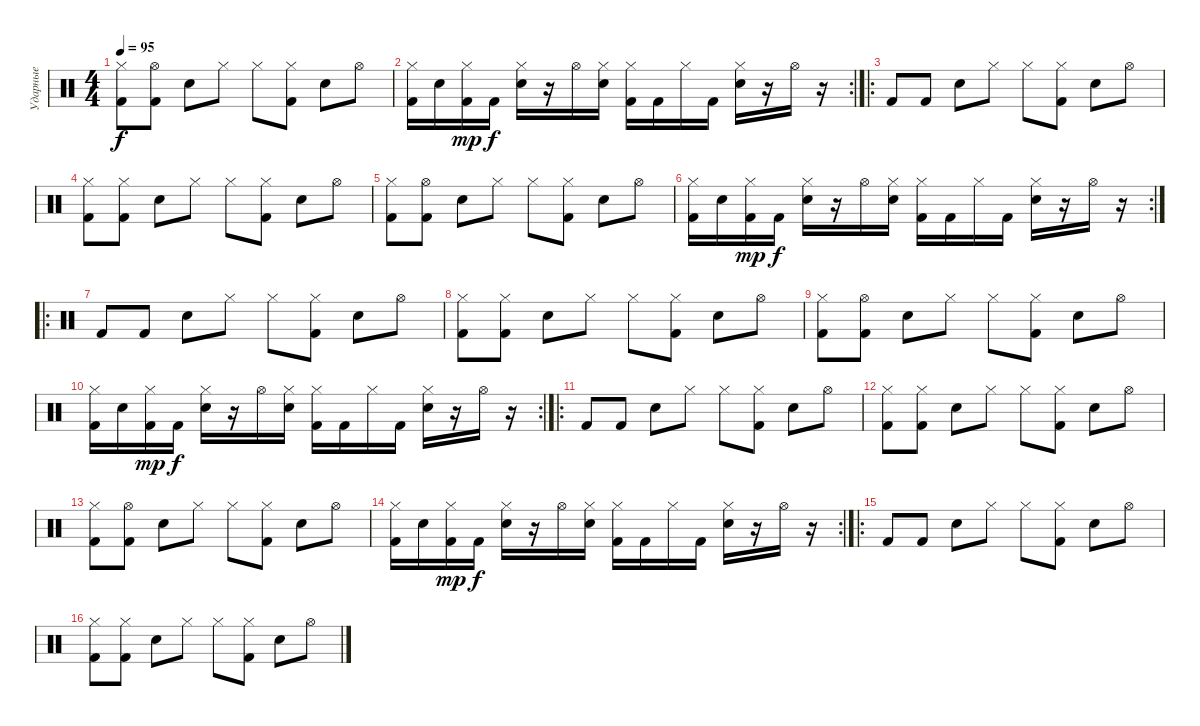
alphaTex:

\track ("Ударные" "Ударные") {instrument percussion}
\staff {score}
\articulation defaults
\ts (4 4)
\tempo 95
\clef neutral
\ks c
("Hi-Hat (closed)" "Kick (hit) 2").8{dy f} ("Hi-Hat (open)" "Kick (hit) 2").8 "Snare (hit) 2".8 "Hi-Hat (closed)".8 "Hi-Hat (closed)".8 ("Hi-Hat (closed)" "Kick (hit) 2").8 "Snare (hit) 2".8 "Hi-Hat (open)".8 |
\rc 2
("Hi-Hat (closed)" "Kick (hit) 2").16 "Snare (hit) 2".16 ("Hi-Hat (closed)" "Kick (hit) 2").16{dy mp} "Kick (hit) 2".16{dy f} ("Hi-Hat (closed)" "Snare (hit) 2").16 r.16 "Hi-Hat (open)".16 ("Hi-Hat (closed)" "Snare (hit) 2").16 ("Hi-Hat (closed)" "Kick (hit) 2").16 "Kick (hit) 2".16 "Hi-Hat (closed)".16 "Kick (hit) 2".16 ("Hi-Hat (closed)" "Snare (hit) 2").16 r.16 "Hi-Hat (open)".16 r.16 |
\ro "Kick (hit) 2".8 "Kick (hit) 2".8 "Snare (hit) 2".8 "Hi-Hat (closed)".8 "Hi-Hat (closed)".8
("Hi-Hat (closed)" "Kick (hit) 2").8 "Snare (hit) 2".8 "Hi-Hat (open)".8 |
("Hi-Hat (closed)" "Kick (hit) 2").8 ("Hi-Hat (closed)" "Kick (hit) 2").8 "Snare (hit) 2".8 "Hi-Hat (closed)".8 "Hi-Hat (closed)".8 ("Hi-Hat (closed)" "Kick (hit) 2").8 "Snare (hit) 2".8 "Hi-Hat (open)".8 |
("Hi-Hat (closed)" "Kick (hit) 2").8 ("Hi-Hat (open)" "Kick (hit) 2").8 "Snare (hit) 2".8 "Hi-Hat (closed)".8 "Hi-Hat (closed)".8 ("Hi-Hat (closed)" "Kick (hit) 2").8 "Snare (hit) 2".8 "Hi-Hat (open)".8 |
\rc 2
("Hi-Hat (closed)" "Kick (hit) 2").16 "Snare (hit) 2".16 ("Hi-Hat (closed)" "Kick (hit) 2").16{dy mp} "Kick (hit) 2".16{dy f} ("Hi-Hat (closed)" "Snare (hit) 2").16 r.16 "Hi-Hat (open)".16 ("Hi-Hat (closed)" "Snare (hit) 2").16 ("Hi-Hat (closed)" "Kick (hit) 2").16 "Kick (hit) 2".16 "Hi-Hat (closed)".16 "Kick (hit) 2".16 ("Hi-Hat (closed)" "Snare (hit) 2").16 r.16 "Hi-Hat (open)".16 r.16 |
\ro "Kick (hit) 2".8 "Kick (hit) 2".8 "Snare (hit) 2".8 "Hi-Hat (closed)".8 "Hi-Hat (closed)".8
("Hi-Hat (closed)" "Kick (hit) 2").8 "Snare (hit) 2".8 "Hi-Hat (open)".8 |
("Hi-Hat (closed)" "Kick (hit) 2").8 ("Hi-Hat (closed)" "Kick (hit) 2").8 "Snare (hit) 2".8 "Hi-Hat (closed)".8 "Hi-Hat (closed)".8 ("Hi-Hat (closed)" "Kick (hit) 2").8 "Snare (hit) 2".8 "Hi-Hat (open)".8 |
("Hi-Hat (closed)" "Kick (hit) 2").8 ("Hi-Hat (open)" "Kick (hit) 2").8 "Snare (hit) 2".8 "Hi-Hat (closed)".8 "Hi-Hat (closed)".8 ("Hi-Hat (closed)" "Kick (hit) 2").8 "Snare (hit) 2".8 "Hi-Hat (open)".8 |
\rc 2
("Hi-Hat (closed)" "Kick (hit) 2").16 "Snare (hit) 2".16 ("Hi-Hat (closed)" "Kick (hit) 2").16{dy mp} "Kick (hit) 2".16{dy f} ("Hi-Hat (closed)" "Snare (hit) 2").16 r.16 "Hi-Hat (open)".16 ("Hi-Hat (closed)" "Snare (hit) 2").16 ("Hi-Hat (closed)" "Kick (hit) 2").16 "Kick (hit) 2".16 "Hi-Hat (closed)".16 "Kick (hit) 2".16 ("Hi-Hat (closed)" "Snare (hit) 2").16 r.16 "Hi-Hat (open)".16 r.16 |
\ro "Kick (hit) 2".8 "Kick (hit) 2".8 "Snare (hit) 2".8 "Hi-Hat (closed)".8 "Hi-Hat (closed)".8
("Hi-Hat (closed)" "Kick (hit) 2").8 "Snare (hit) 2".8 "Hi-Hat (open)".8 |
("Hi-Hat (closed)" "Kick (hit) 2").8 ("Hi-Hat (closed)" "Kick (hit) 2").8 "Snare (hit) 2".8 "Hi-Hat (closed)".8 "Hi-Hat (closed)".8 ("Hi-Hat (closed)" "Kick (hit) 2").8 "Snare (hit) 2".8 "Hi-Hat (open)".8 |
("Hi-Hat (closed)" "Kick (hit) 2").8 ("Hi-Hat (open)" "Kick (hit) 2").8 "Snare (hit) 2".8 "Hi-Hat (closed)".8 "Hi-Hat (closed)".8 ("Hi-Hat (closed)" "Kick (hit) 2").8 "Snare (hit) 2".8 "Hi-Hat (open)".8 |
\rc 2
("Hi-Hat (closed)" "Kick (hit) 2").16 "Snare (hit) 2".16 ("Hi-Hat (closed)" "Kick (hit) 2").16{dy mp} "Kick (hit) 2".16{dy f} ("Hi-Hat (closed)" "Snare (hit) 2").16 r.16 "Hi-Hat (open)".16 ("Hi-Hat (closed)" "Snare (hit) 2").16 ("Hi-Hat (closed)" "Kick (hit) 2").16 "Kick (hit) 2".16 "Hi-Hat (closed)".16 "Kick (hit) 2".16 ("Hi-Hat (closed)" "Snare (hit) 2").16 r.16 "Hi-Hat (open)".16 r.16 |
\ro "Kick (hit) 2".8 "Kick (hit) 2".8 "Snare (hit) 2".8 "Hi-Hat (closed)".8 "Hi-Hat (closed)".8
("Hi-Hat (closed)" "Kick (hit) 2").8 "Snare (hit) 2".8 "Hi-Hat (open)".8 |
("Hi-Hat (closed)" "Kick (hit) 2").8 ("Hi-Hat (closed)" "Kick (hit) 2").8 "Snare (hit) 2".8 "Hi-Hat (closed)".8 "Hi-Hat (closed)".8 ("Hi-Hat (closed)" "Kick (hit) 2").8 "Snare (hit) 2".8 "Hi-Hat (open)".8
